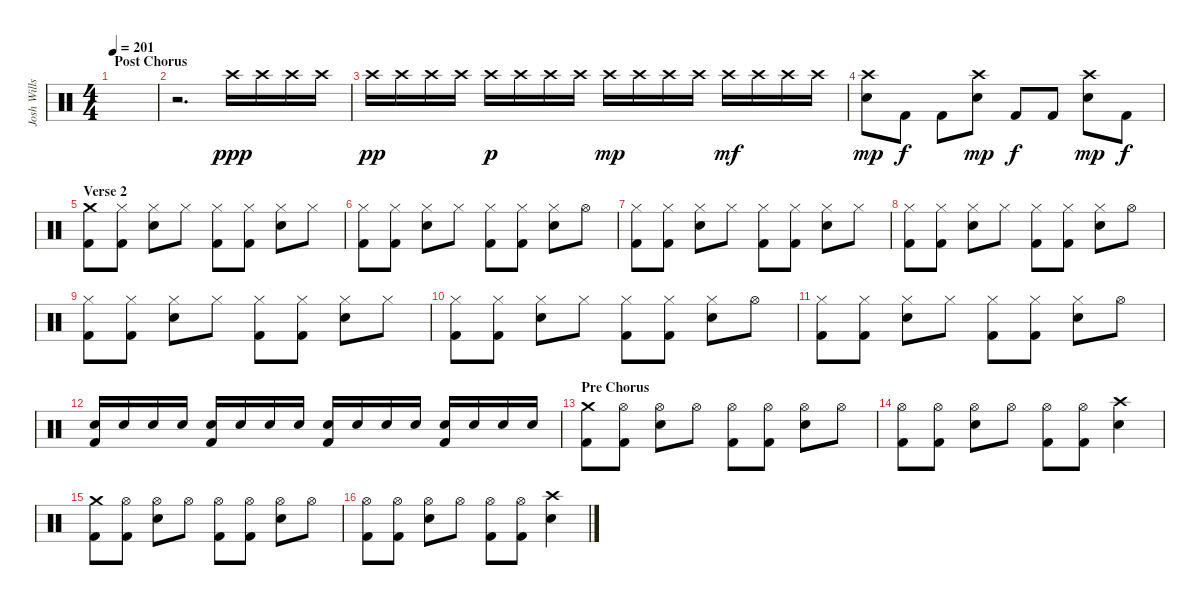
\track ("Josh Wills" "Josh Wills") {instrument percussion}
\staff {score}
\articulation defaults
\ts (4 4)
\section ("" "Post Chorus")
\tempo 201
\clef neutral
\ks c
|
r.2{d} "Crash high (hit)".16{dy ppp} "Crash high (hit)".16 "Crash high (hit)".16 "Crash high (hit)".16 |
"Crash high (hit)".16{dy pp} "Crash high (hit)".16 "Crash high (hit)".16 "Crash high (hit)".16 "Crash high (hit)".16{dy p} "Crash high (hit)".16 "Crash high (hit)".16 "Crash high (hit)".16 "Crash high (hit)".16{dy mp} "Crash high (hit)".16 "Crash high (hit)".16 "Crash high (hit)".16 "Crash high (hit)".16{dy mf} "Crash high (hit)".16 "Crash high (hit)".16 "Crash high (hit)".16 |
("Crash high (hit)" "Snare (hit) 2").8{dy mp} "Kick (hit) 2".8{dy f} "Kick (hit) 2".8 ("Crash high (hit)" "Snare (hit) 2").8{dy mp} "Kick (hit) 2".8{dy f} "Kick (hit) 2".8 ("Crash high (hit)" "Snare (hit) 2").8{dy mp} "Kick (hit) 2".8{dy f} |
\section ("" "Verse 2")
("Crash medium (hit)" "Kick (hit) 2").8 ("Hi-Hat (closed)" "Kick (hit) 2").8 ("Hi-Hat (closed)" "Snare (hit) 2").8 "Hi-Hat (closed)".8 ("Hi-Hat (closed)" "Kick (hit) 2").8 ("Hi-Hat (closed)" "Kick (hit) 2").8 ("Hi-Hat (closed)" "Snare (hit) 2").8 "Hi-Hat (closed)".8 |
("Hi-Hat (closed)" "Kick (hit) 2").8 ("Hi-Hat (closed)" "Kick (hit) 2").8 ("Hi-Hat (closed)" "Snare (hit) 2").8 "Hi-Hat (closed)".8 ("Hi-Hat (closed)" "Kick (hit) 2").8 ("Hi-Hat (closed)" "Kick (hit) 2").8 ("Hi-Hat (closed)" "Snare (hit) 2").8 "Hi-Hat (open)".8 |
("Hi-Hat (closed)" "Kick (hit) 2").8 ("Hi-Hat (closed)" "Kick (hit) 2").8 ("Hi-Hat (closed)" "Snare (hit) 2").8 "Hi-Hat (closed)".8 ("Hi-Hat (closed)" "Kick (hit) 2").8 ("Hi-Hat (closed)" "Kick (hit) 2").8 ("Hi-Hat (closed)" "Snare (hit) 2").8 "Hi-Hat (closed)".8 |
("Hi-Hat (closed)" "Kick (hit) 2").8 ("Hi-Hat (closed)" "Kick (hit) 2").8 ("Hi-Hat (closed)" "Snare (hit) 2").8 "Hi-Hat (closed)".8 ("Hi-Hat (closed)" "Kick (hit) 2").8 ("Hi-Hat (closed)" "Kick (hit) 2").8 ("Hi-Hat (closed)" "Snare (hit) 2").8 "Hi-Hat (open)".8 |
("Hi-Hat (closed)" "Kick (hit) 2").8 ("Hi-Hat (closed)" "Kick (hit) 2").8 ("Hi-Hat (closed)" "Snare (hit) 2").8 "Hi-Hat (closed)".8 ("Hi-Hat (closed)" "Kick (hit) 2").8 ("Hi-Hat (closed)" "Kick (hit) 2").8 ("Hi-Hat (closed)" "Snare (hit) 2").8 "Hi-Hat (closed)".8 |
("Hi-Hat (closed)" "Kick (hit) 2").8 ("Hi-Hat (closed)" "Kick (hit) 2").8 ("Hi-Hat (closed)" "Snare (hit) 2").8 "Hi-Hat (closed)".8 ("Hi-Hat (closed)" "Kick (hit) 2").8 ("Hi-Hat (closed)" "Kick (hit) 2").8 ("Hi-Hat (closed)" "Snare (hit) 2").8 "Hi-Hat (open)".8 |
("Hi-Hat (closed)" "Kick (hit) 2").8 ("Hi-Hat (closed)" "Kick (hit) 2").8 ("Hi-Hat (closed)" "Snare (hit) 2").8 "Hi-Hat (closed)".8 ("Hi-Hat (closed)" "Kick (hit) 2").8 ("Hi-Hat (closed)" "Kick (hit) 2").8 ("Hi-Hat (closed)" "Snare (hit) 2").8 "Hi-Hat (open)".8 |
("Snare (hit) 2" "Kick (hit) 2").16 "Snare (hit) 2".16 "Snare (hit) 2".16 "Snare (hit) 2".16 ("Snare (hit) 2" "Kick (hit) 2").16 "Snare (hit) 2".16 "Snare (hit) 2".16 "Snare (hit) 2".16 ("Snare (hit) 2" "Kick (hit) 2").16 "Snare (hit) 2".16 "Snare (hit) 2".16 "Snare (hit) 2".16 ("Snare (hit) 2" "Kick (hit) 2").16 "Snare (hit) 2".16 "Snare (hit) 2".16 "Snare (hit) 2".16 |
\section ("" "Pre Chorus")
("Crash medium (hit)" "Kick (hit) 2").8 ("Hi-Hat (open)" "Kick (hit) 2").8 ("Hi-Hat (open)" "Snare (hit) 2").8 "Hi-Hat (open)".8 ("Hi-Hat (open)" "Kick (hit) 2").8 ("Hi-Hat (open)" "Kick (hit) 2").8 ("Hi-Hat (open)" "Snare (hit) 2").8 "Hi-Hat (open)".8 |
("Hi-Hat (open)" "Kick (hit) 2").8 ("Hi-Hat (open)" "Kick (hit) 2").8 ("Hi-Hat (open)" "Snare (hit) 2").8 "Hi-Hat (open)".8 ("Hi-Hat (open)" "Kick (hit) 2").8 ("Hi-Hat (open)" "Kick (hit) 2").8 ("Crash high (hit)" "Snare (hit) 2").4 |
("Crash medium (hit)" "Kick (hit) 2").8 ("Hi-Hat (open)" "Kick (hit) 2").8 ("Hi-Hat (open)" "Snare (hit) 2").8 "Hi-Hat (open)".8 ("Hi-Hat (open)" "Kick (hit) 2").8 ("Hi-Hat (open)" "Kick (hit) 2").8 ("Hi-Hat (open)" "Snare (hit) 2").8 "Hi-Hat (open)".8 |
("Hi-Hat (open)" "Kick (hit) 2").8 ("Hi-Hat (open)" "Kick (hit) 2").8 ("Hi-Hat (open)" "Snare (hit) 2").8 "Hi-Hat (open)".8 ("Hi-Hat (open)" "Kick (hit) 2").8 ("Hi-Hat (open)" "Kick (hit) 2").8 ("Crash high (hit)" "Snare (hit) 2").4
